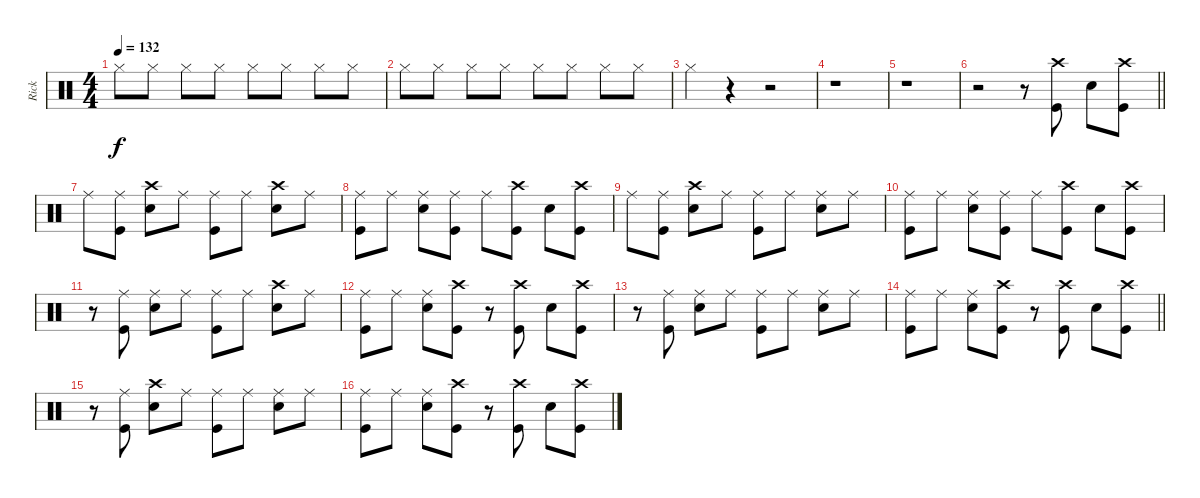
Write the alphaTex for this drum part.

\track ("Rick" "Rick") {instrument percussion}
\staff {score}
\articulation defaults
\ts (4 4)
\tempo 132
\clef neutral
\ks aminor "Hi-Hat (closed)".8{dy f} "Hi-Hat (closed)".8 "Hi-Hat (closed)".8 "Hi-Hat (closed)".8 "Hi-Hat (closed)".8 "Hi-Hat (closed)".8 "Hi-Hat (closed)".8 "Hi-Hat (closed)".8
|
"Hi-Hat (closed)".8 "Hi-Hat (closed)".8 "Hi-Hat (closed)".8 "Hi-Hat (closed)".8 "Hi-Hat (closed)".8 "Hi-Hat (closed)".8 "Hi-Hat (closed)".8 "Hi-Hat (closed)".8 |
"Hi-Hat (closed)".4 r.4 r.2 |
r.1 |
r.1 |
\barLineRight lightlight
r.2 r.8 ("Crash high (hit)" "Kick (hit)").8 "Snare (hit) 2".8 ("Crash high (hit)" "Kick (hit)").8 |
"Ride (middle)".8 ("Ride (middle)" "Kick (hit)").8 ("Crash high (hit)" "Snare (hit) 2").8 "Ride (middle)".8 ("Ride (middle)" "Kick (hit)").8 "Ride (middle)".8 ("Crash high (hit)" "Snare (hit) 2").8 "Ride (middle)".8 |
("Ride (middle)" "Kick (hit)").8 "Ride (middle)".8 ("Ride (middle)" "Snare (hit) 2").8 ("Ride (middle)" "Kick (hit)").8 "Ride (middle)".8 ("Crash high (hit)" "Kick (hit)").8 "Snare (hit) 2".8 ("Crash high (hit)" "Kick (hit)").8 |
"Ride (middle)".8 ("Ride (middle)" "Kick (hit)").8 ("Crash high (hit)" "Snare (hit) 2").8 "Ride (middle)".8 ("Ride (middle)" "Kick (hit)").8 "Ride (middle)".8 ("Ride (middle)" "Snare (hit) 2").8 "Ride (middle)".8 |
("Ride (middle)" "Kick (hit)").8 "Ride (middle)".8 ("Ride (middle)" "Snare (hit) 2").8 ("Ride (middle)" "Kick (hit)").8 "Ride (middle)".8 ("Crash high (hit)" "Kick (hit)").8 "Snare (hit) 2".8 ("Crash high (hit)" "Kick (hit)").8 |
r.8 ("Ride (middle)" "Kick (hit)").8 ("Ride (middle)" "Snare (hit) 2").8 "Ride (middle)".8 ("Ride (middle)" "Kick (hit)").8 "Ride (middle)".8 ("Crash high (hit)" "Snare (hit) 2").8 "Ride (middle)".8 |
("Ride (middle)" "Kick (hit)").8 "Ride (middle)".8 ("Ride (middle)" "Snare (hit) 2").8 ("Crash high (hit)" "Kick (hit)").8 r.8 ("Crash high (hit)" "Kick (hit)").8 "Snare (hit) 2".8 ("Crash high (hit)" "Kick (hit)").8 |
r.8 ("Ride (middle)" "Kick (hit)").8 ("Ride (middle)" "Snare (hit) 2").8 "Ride (middle)".8 ("Ride (middle)" "Kick (hit)").8 "Ride (middle)".8 ("Ride (middle)" "Snare (hit) 2").8 "Ride (middle)".8 |
\barLineRight lightlight
("Ride (middle)" "Kick (hit)").8 "Ride (middle)".8 ("Ride (middle)" "Snare (hit) 2").8 ("Crash high (hit)" "Kick (hit)").8 r.8 ("Crash high (hit)" "Kick (hit)").8 "Snare (hit) 2".8 ("Crash high (hit)" "Kick (hit)").8 |
r.8 ("Ride (middle)" "Kick (hit)").8 ("Crash high (hit)" "Snare (hit) 2").8 "Ride (middle)".8 ("Ride (middle)" "Kick (hit)").8 "Ride (middle)".8 ("Ride (middle)" "Snare (hit) 2").8 "Ride (middle)".8 |
("Ride (middle)" "Kick (hit)").8 "Ride (middle)".8 ("Ride (middle)" "Snare (hit) 2").8 ("Crash high (hit)" "Kick (hit)").8 r.8 ("Crash high (hit)" "Kick (hit)").8 "Snare (hit) 2".8 ("Crash high (hit)" "Kick (hit)").8
